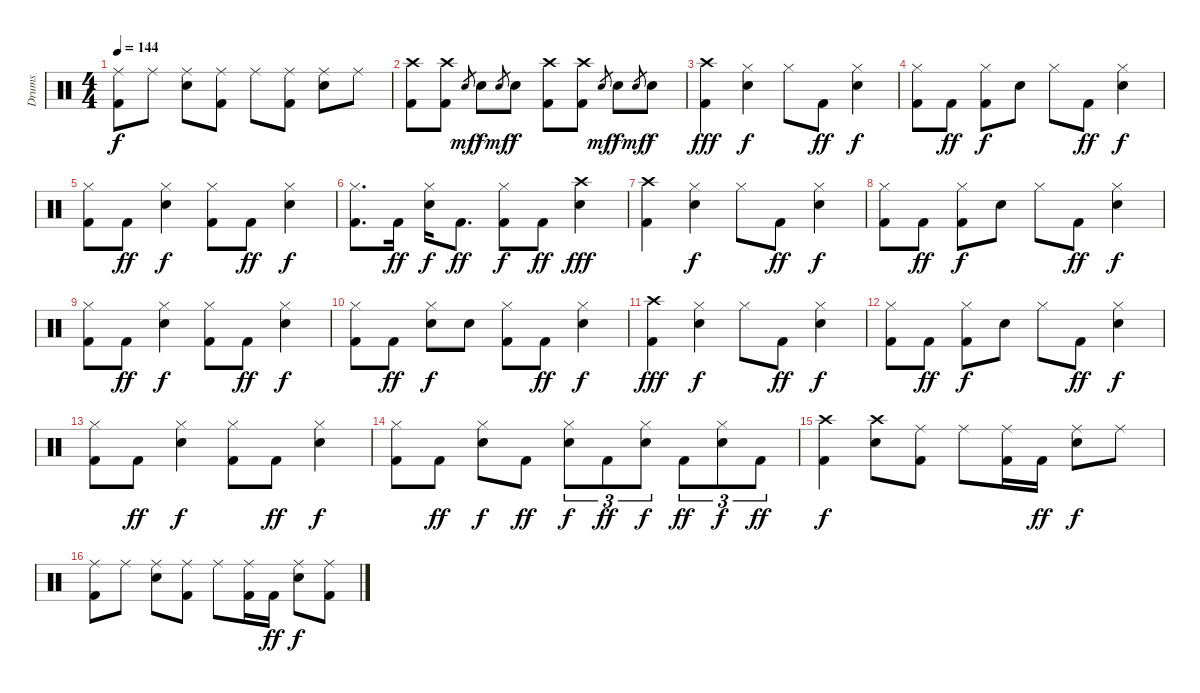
\track ("Drums" "Drums") {instrument percussion}
\staff {score}
\articulation defaults
\ts (4 4)
\tempo 144
\clef neutral
\ks c
("Ride (middle)" "Kick (hit) 2").8{dy f} "Ride (middle)".8 ("Ride (middle)" "Snare (hit) 2").8 ("Ride (middle)" "Kick (hit) 2").8 "Ride (middle)".8 ("Ride (middle)" "Kick (hit) 2").8 ("Ride (middle)" "Snare (hit) 2").8 "Ride (middle)".8 |
("Crash high (hit)" "Kick (hit) 2").8 ("Crash high (hit)" "Kick (hit) 2").8 "Snare (hit)".8{gr dy mf} "Snare (hit) 2".8{dy f} "Snare (hit)".8{gr dy mf} "Snare (hit) 2".8{dy f} ("Crash high (hit)" "Kick (hit) 2").8 ("Crash high (hit)" "Kick (hit) 2").8 "Snare (hit)".8{gr dy mf} "Snare (hit) 2".8{dy f} "Snare (hit)".8{gr dy mf} "Snare (hit) 2".8{dy f} |
("Crash high (hit)" "Kick (hit) 2").4{dy fff} ("Hi-Hat (closed)" "Snare (hit) 2").4{dy f} "Hi-Hat (closed)".8 "Kick (hit) 2".8{dy ff} ("Hi-Hat (closed)" "Snare (hit) 2").4{dy f} |
("Hi-Hat (closed)" "Kick (hit) 2").8 "Kick (hit) 2".8{dy ff} ("Hi-Hat (closed)" "Kick (hit) 2").8{dy f} "Snare (hit) 2".8 "Hi-Hat (closed)".8 "Kick (hit) 2".8{dy ff} ("Hi-Hat (closed)" "Snare (hit) 2").4{dy f} |
("Hi-Hat (closed)" "Kick (hit) 2").8 "Kick (hit) 2".8{dy ff} ("Hi-Hat (closed)" "Snare (hit) 2").4{dy f} ("Hi-Hat (closed)" "Kick (hit) 2").8 "Kick (hit) 2".8{dy ff} ("Hi-Hat (closed)" "Snare (hit) 2").4{dy f} |
("Hi-Hat (closed)" "Kick (hit) 2").8{d} "Kick (hit) 2".16{dy ff} ("Hi-Hat (closed)" "Snare (hit) 2").16{dy f} "Kick (hit) 2".8{d dy ff} ("Hi-Hat (closed)" "Kick (hit) 2").8{dy f} "Kick (hit) 2".8{dy ff} ("Crash high (hit)" "Snare (hit) 2").4{dy fff} |
("Crash high (hit)" "Kick (hit) 2").4 ("Hi-Hat (closed)" "Snare (hit) 2").4{dy f} "Hi-Hat (closed)".8 "Kick (hit) 2".8{dy ff} ("Hi-Hat (closed)" "Snare (hit) 2").4{dy f} |
("Hi-Hat (closed)" "Kick (hit) 2").8 "Kick (hit) 2".8{dy ff} ("Hi-Hat (closed)" "Kick (hit) 2").8{dy f} "Snare (hit) 2".8 "Hi-Hat (closed)".8 "Kick (hit) 2".8{dy ff} ("Hi-Hat (closed)" "Snare (hit) 2").4{dy f} |
("Hi-Hat (closed)" "Kick (hit) 2").8 "Kick (hit) 2".8{dy ff} ("Hi-Hat (closed)" "Snare (hit) 2").4{dy f} ("Hi-Hat (closed)" "Kick (hit) 2").8 "Kick (hit) 2".8{dy ff} ("Hi-Hat (closed)" "Snare (hit) 2").4{dy f} |
("Hi-Hat (closed)" "Kick (hit) 2").8 "Kick (hit) 2".8{dy ff} ("Hi-Hat (closed)" "Snare (hit) 2").8{dy f} "Snare (hit) 2".8 ("Hi-Hat (closed)" "Kick (hit) 2").8 "Kick (hit) 2".8{dy ff} ("Hi-Hat (closed)" "Snare (hit) 2").4{dy f} |
("Crash high (hit)" "Kick (hit) 2").4{dy fff} ("Hi-Hat (closed)" "Snare (hit) 2").4{dy f} "Hi-Hat (closed)".8 "Kick (hit) 2".8{dy ff} ("Hi-Hat (closed)" "Snare (hit) 2").4{dy f} |
("Hi-Hat (closed)" "Kick (hit) 2").8 "Kick (hit) 2".8{dy ff} ("Hi-Hat (closed)" "Kick (hit) 2").8{dy f} "Snare (hit) 2".8 "Hi-Hat (closed)".8 "Kick (hit) 2".8{dy ff} ("Hi-Hat (closed)" "Snare (hit) 2").4{dy f} |
("Hi-Hat (closed)" "Kick (hit) 2").8 "Kick (hit) 2".8{dy ff} ("Hi-Hat (closed)" "Snare (hit) 2").4{dy f} ("Hi-Hat (closed)" "Kick (hit) 2").8 "Kick (hit) 2".8{dy ff} ("Hi-Hat (closed)" "Snare (hit) 2").4{dy f} |
("Hi-Hat (closed)" "Kick (hit) 2").8 "Kick (hit) 2".8{dy ff} ("Hi-Hat (closed)" "Snare (hit) 2").8{dy f} "Kick (hit) 2".8{dy ff} ("Hi-Hat (closed)" "Snare (hit) 2").8{tu (3 2) dy f} "Kick (hit) 2".8{tu (3 2) dy ff} ("Hi-Hat (closed)" "Snare (hit) 2").8{tu (3 2) dy f} "Kick (hit) 2".8{tu (3 2) dy ff} ("Hi-Hat (closed)" "Snare (hit) 2").8{tu (3 2) dy f} "Kick (hit) 2".8{tu (3 2) dy ff} |
("Crash high (hit)" "Kick (hit) 2").4{dy f} ("Crash high (hit)" "Snare (hit) 2").8 ("Ride (middle)" "Kick (hit) 2").8 "Ride (middle)".8 ("Ride (middle)" "Kick (hit) 2").16 "Kick (hit) 2".16{dy ff} ("Ride (middle)" "Snare (hit) 2").8{dy f} "Ride (middle)".8 |
("Ride (middle)" "Kick (hit) 2").8 "Ride (middle)".8 ("Ride (middle)" "Snare (hit) 2").8 ("Ride (middle)" "Kick (hit) 2").8 "Ride (middle)".8 ("Ride (middle)" "Kick (hit) 2").16 "Kick (hit) 2".16{dy ff} ("Ride (middle)" "Snare (hit) 2").8{dy f} ("Ride (middle)" "Kick (hit) 2").8
